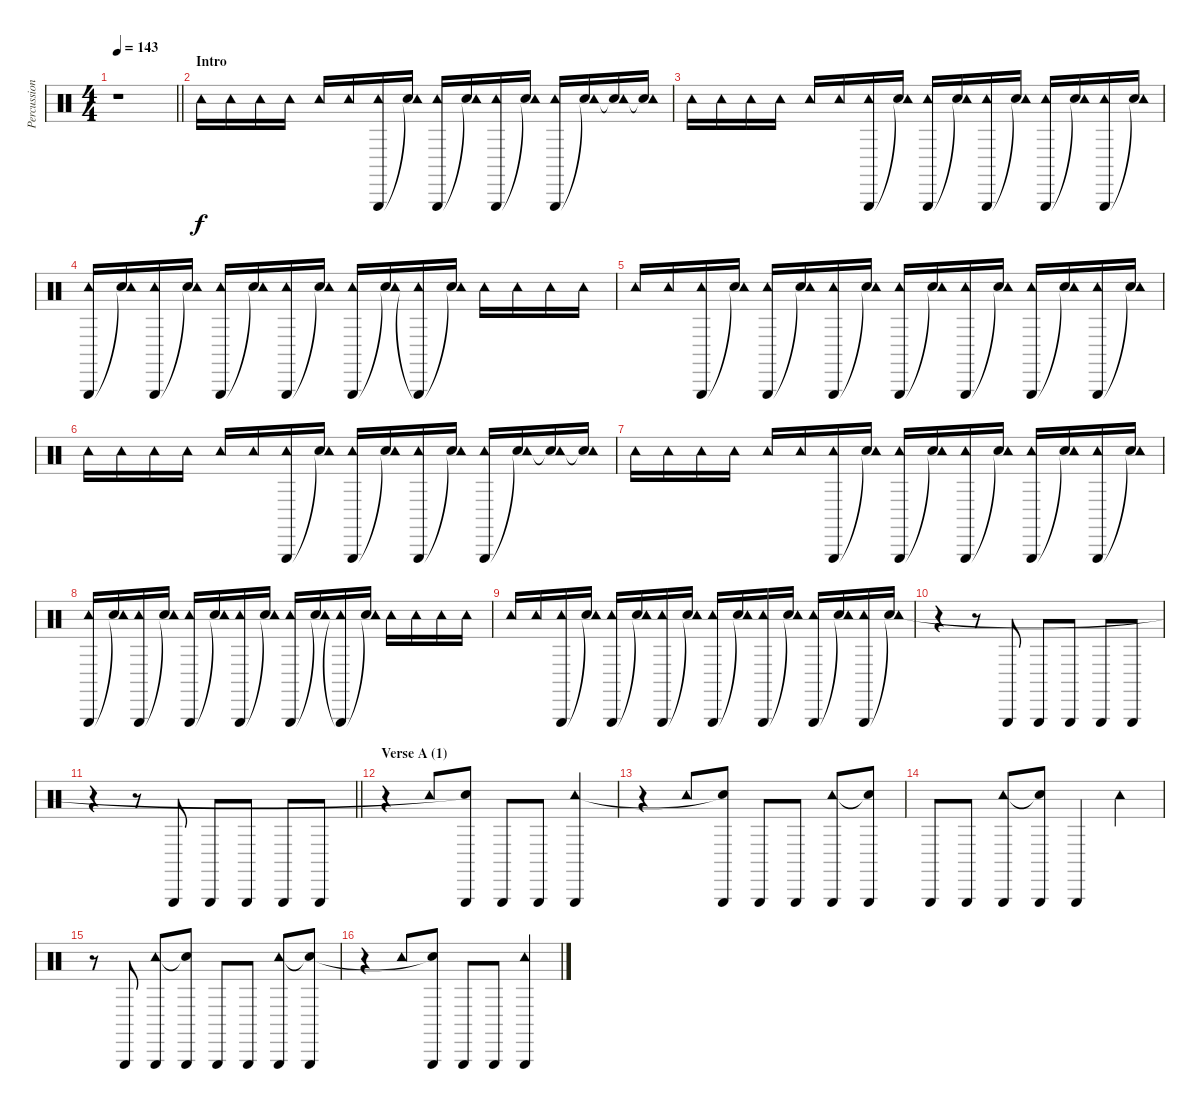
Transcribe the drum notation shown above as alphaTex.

\track ("Percussion" "Percussion") {instrument percussion}
\staff {score}
\articulation defaults
\ts (4 4)
\tempo 143
\clef neutral
\barLineRight lightlight
\ks aminor
r.1{dy f} |
\section ("" "Intro")
"Tambourine (hit)".16 "Tambourine (hit)".16 "Tambourine (hit)".16 "Tambourine (hit)".16 "Tambourine (hit)".16 "Tambourine (hit)".16 ("Triangle (hit)" "Tambourine (hit)").16 ("Snare (hit)"{t} "Tambourine (hit)").16 ("Triangle (hit)" "Tambourine (hit)").16 ("Snare (hit)"{t} "Tambourine (hit)").16 ("Triangle (hit)" "Tambourine (hit)").16 ("Snare (hit)"{t} "Tambourine (hit)").16 ("Triangle (hit)" "Tambourine (hit)").16 ("Snare (hit)"{t} "Tambourine (hit)").16 ("Snare (hit)"{t} "Tambourine (hit)").16 ("Snare (hit)"{t} "Tambourine (hit)").16 |
"Tambourine (hit)".16 "Tambourine (hit)".16 "Tambourine (hit)".16 "Tambourine (hit)".16 "Tambourine (hit)".16 "Tambourine (hit)".16 ("Triangle (hit)" "Tambourine (hit)").16 ("Snare (hit)"{t} "Tambourine (hit)").16 ("Triangle (hit)" "Tambourine (hit)").16 ("Snare (hit)"{t} "Tambourine (hit)").16 ("Triangle (hit)" "Tambourine (hit)").16 ("Snare (hit)"{t} "Tambourine (hit)").16 ("Triangle (hit)" "Tambourine (hit)").16 ("Snare (hit)"{t} "Tambourine (hit)").16 ("Triangle (hit)" "Tambourine (hit)").16 ("Snare (hit)"{t} "Tambourine (hit)").16 |
("Triangle (hit)" "Tambourine (hit)").16 ("Snare (hit)"{t} "Tambourine (hit)").16 ("Triangle (hit)" "Tambourine (hit)").16 ("Snare (hit)"{t} "Tambourine (hit)").16 ("Triangle (hit)" "Tambourine (hit)").16 ("Snare (hit)"{t} "Tambourine (hit)").16 ("Triangle (hit)" "Tambourine (hit)").16 ("Snare (hit)"{t} "Tambourine (hit)").16 ("Triangle (hit)" "Tambourine (hit)").16 ("Snare (hit)"{t} "Tambourine (hit)").16 ("Triangle (hit)"{t} "Tambourine (hit)").16 ("Snare (hit)"{t} "Tambourine (hit)").16 "Tambourine (hit)".16 "Tambourine (hit)".16 "Tambourine (hit)".16 "Tambourine (hit)".16 |
"Tambourine (hit)".16 "Tambourine (hit)".16 ("Triangle (hit)" "Tambourine (hit)").16 ("Snare (hit)"{t} "Tambourine (hit)").16 ("Triangle (hit)" "Tambourine (hit)").16 ("Snare (hit)"{t} "Tambourine (hit)").16 ("Triangle (hit)" "Tambourine (hit)").16 ("Snare (hit)"{t} "Tambourine (hit)").16 ("Triangle (hit)" "Tambourine (hit)").16 ("Snare (hit)"{t} "Tambourine (hit)").16 ("Triangle (hit)" "Tambourine (hit)").16 ("Snare (hit)"{t} "Tambourine (hit)").16 ("Triangle (hit)" "Tambourine (hit)").16 ("Snare (hit)"{t} "Tambourine (hit)").16 ("Triangle (hit)" "Tambourine (hit)").16 ("Snare (hit)"{t} "Tambourine (hit)").16 |
"Tambourine (hit)".16 "Tambourine (hit)".16 "Tambourine (hit)".16 "Tambourine (hit)".16 "Tambourine (hit)".16 "Tambourine (hit)".16 ("Triangle (hit)" "Tambourine (hit)").16 ("Snare (hit)"{t} "Tambourine (hit)").16 ("Triangle (hit)" "Tambourine (hit)").16 ("Snare (hit)"{t} "Tambourine (hit)").16 ("Triangle (hit)" "Tambourine (hit)").16 ("Snare (hit)"{t} "Tambourine (hit)").16 ("Triangle (hit)" "Tambourine (hit)").16 ("Snare (hit)"{t} "Tambourine (hit)").16 ("Snare (hit)"{t} "Tambourine (hit)").16 ("Snare (hit)"{t} "Tambourine (hit)").16 |
"Tambourine (hit)".16 "Tambourine (hit)".16 "Tambourine (hit)".16 "Tambourine (hit)".16 "Tambourine (hit)".16 "Tambourine (hit)".16 ("Triangle (hit)" "Tambourine (hit)").16 ("Snare (hit)"{t} "Tambourine (hit)").16 ("Triangle (hit)" "Tambourine (hit)").16 ("Snare (hit)"{t} "Tambourine (hit)").16 ("Triangle (hit)" "Tambourine (hit)").16 ("Snare (hit)"{t} "Tambourine (hit)").16 ("Triangle (hit)" "Tambourine (hit)").16 ("Snare (hit)"{t} "Tambourine (hit)").16 ("Triangle (hit)" "Tambourine (hit)").16 ("Snare (hit)"{t} "Tambourine (hit)").16 |
("Triangle (hit)" "Tambourine (hit)").16 ("Snare (hit)"{t} "Tambourine (hit)").16 ("Triangle (hit)" "Tambourine (hit)").16 ("Snare (hit)"{t} "Tambourine (hit)").16 ("Triangle (hit)" "Tambourine (hit)").16 ("Snare (hit)"{t} "Tambourine (hit)").16 ("Triangle (hit)" "Tambourine (hit)").16 ("Snare (hit)"{t} "Tambourine (hit)").16 ("Triangle (hit)" "Tambourine (hit)").16 ("Snare (hit)"{t} "Tambourine (hit)").16 ("Triangle (hit)"{t} "Tambourine (hit)").16 ("Snare (hit)"{t} "Tambourine (hit)").16 "Tambourine (hit)".16 "Tambourine (hit)".16 "Tambourine (hit)".16 "Tambourine (hit)".16 |
"Tambourine (hit)".16 "Tambourine (hit)".16 ("Triangle (hit)" "Tambourine (hit)").16 ("Snare (hit)"{t} "Tambourine (hit)").16 ("Triangle (hit)" "Tambourine (hit)").16 ("Snare (hit)"{t} "Tambourine (hit)").16 ("Triangle (hit)" "Tambourine (hit)").16 ("Snare (hit)"{t} "Tambourine (hit)").16 ("Triangle (hit)" "Tambourine (hit)").16 ("Snare (hit)"{t} "Tambourine (hit)").16 ("Triangle (hit)" "Tambourine (hit)").16 ("Snare (hit)"{t} "Tambourine (hit)").16 ("Triangle (hit)" "Tambourine (hit)").16 ("Snare (hit)"{t} "Tambourine (hit)").16 ("Triangle (hit)" "Tambourine (hit)").16 ("Snare (hit)"{t} "Tambourine (hit)").16 |
r.4 r.8 "Triangle (hit)".8 "Triangle (hit)".8 "Triangle (hit)".8 "Triangle (hit)".8 "Triangle (hit)".8 |
\barLineRight lightlight
r.4 r.8 "Triangle (hit)".8 "Triangle (hit)".8 "Triangle (hit)".8 "Triangle (hit)".8 "Triangle (hit)".8 |
\section ("" "Verse A (1)")
r.4 "Tambourine (hit)".8 ("Triangle (hit)" "Snare (hit)"{t}).8 "Triangle (hit)".8 "Triangle (hit)".8 ("Triangle (hit)" "Tambourine (hit)").4 |
r.4 "Tambourine (hit)".8 ("Triangle (hit)" "Snare (hit)"{t}).8 "Triangle (hit)".8 "Triangle (hit)".8 ("Triangle (hit)" "Tambourine (hit)").8 ("Triangle (hit)" "Snare (hit)"{t}).8 |
"Triangle (hit)".8 "Triangle (hit)".8 ("Triangle (hit)" "Tambourine (hit)").8 ("Triangle (hit)" "Snare (hit)"{t}).8 "Triangle (hit)".4 "Tambourine (hit)".4 |
r.8 "Triangle (hit)".8 ("Triangle (hit)" "Tambourine (hit)").8 ("Triangle (hit)" "Snare (hit)"{t}).8 "Triangle (hit)".8 "Triangle (hit)".8 ("Triangle (hit)" "Tambourine (hit)").8 ("Triangle (hit)" "Snare (hit)"{t}).8 |
r.4 "Tambourine (hit)".8 ("Triangle (hit)" "Snare (hit)"{t}).8 "Triangle (hit)".8 "Triangle (hit)".8 ("Triangle (hit)" "Tambourine (hit)").4
